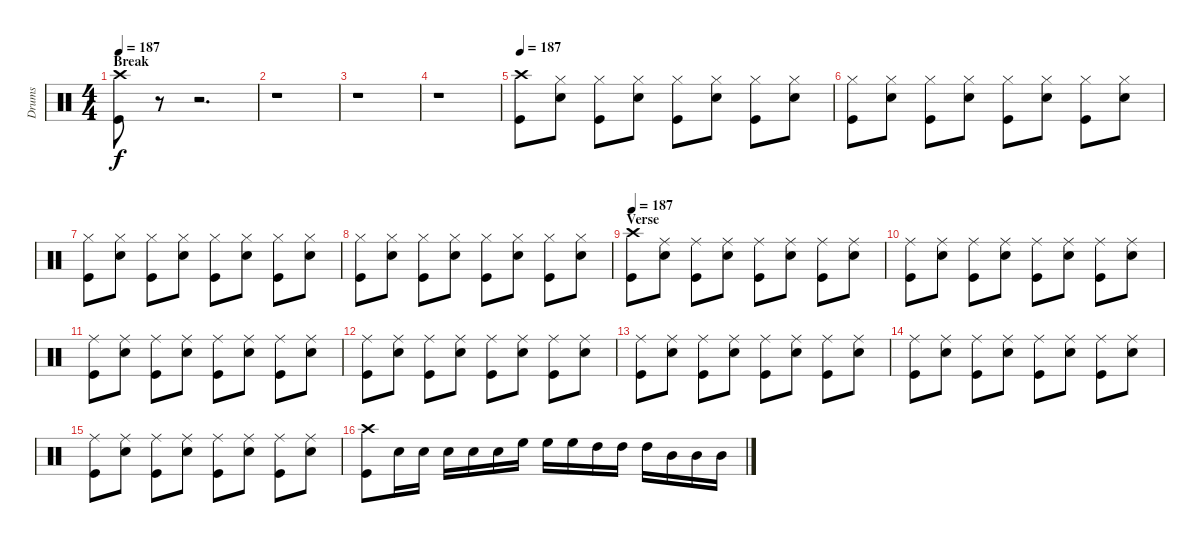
\track ("Drums" "Drums") {instrument percussion}
\staff {score}
\articulation defaults
\ts (4 4)
\section ("" "Break")
\tempo 187
\clef neutral
\ks c
("Crash high (hit)" "Kick (hit)").8{dy f} r.8 r.2{d} |
r.1 |
r.1 |
r.1 |
\tempo 187
("Crash high (hit)" "Kick (hit)").8 ("Hi-Hat (closed)" "Snare (hit) 2").8 ("Hi-Hat (closed)" "Kick (hit)").8 ("Hi-Hat (closed)" "Snare (hit) 2").8 ("Hi-Hat (closed)" "Kick (hit)").8 ("Hi-Hat (closed)" "Snare (hit) 2").8 ("Hi-Hat (closed)" "Kick (hit)").8 ("Hi-Hat (closed)" "Snare (hit) 2").8 |
("Hi-Hat (closed)" "Kick (hit)").8 ("Hi-Hat (closed)" "Snare (hit) 2").8 ("Hi-Hat (closed)" "Kick (hit)").8 ("Hi-Hat (closed)" "Snare (hit) 2").8 ("Hi-Hat (closed)" "Kick (hit)").8 ("Hi-Hat (closed)" "Snare (hit) 2").8 ("Hi-Hat (closed)" "Kick (hit)").8 ("Hi-Hat (closed)" "Snare (hit) 2").8 |
("Hi-Hat (closed)" "Kick (hit)").8 ("Hi-Hat (closed)" "Snare (hit) 2").8 ("Hi-Hat (closed)" "Kick (hit)").8 ("Hi-Hat (closed)" "Snare (hit) 2").8 ("Hi-Hat (closed)" "Kick (hit)").8 ("Hi-Hat (closed)" "Snare (hit) 2").8 ("Hi-Hat (closed)" "Kick (hit)").8 ("Hi-Hat (closed)" "Snare (hit) 2").8 |
("Hi-Hat (closed)" "Kick (hit)").8 ("Hi-Hat (closed)" "Snare (hit) 2").8 ("Hi-Hat (closed)" "Kick (hit)").8 ("Hi-Hat (closed)" "Snare (hit) 2").8 ("Hi-Hat (closed)" "Kick (hit)").8 ("Hi-Hat (closed)" "Snare (hit) 2").8 ("Hi-Hat (closed)" "Kick (hit)").8 ("Hi-Hat (closed)" "Snare (hit) 2").8 |
\section ("" "Verse")
\tempo 187
("Crash high (hit)" "Kick (hit)").8 ("Ride (middle)" "Snare (hit) 2").8 ("Ride (middle)" "Kick (hit)").8 ("Ride (middle)" "Snare (hit) 2").8 ("Ride (middle)" "Kick (hit)").8 ("Ride (middle)" "Snare (hit) 2").8 ("Ride (middle)" "Kick (hit)").8 ("Ride (middle)" "Snare (hit) 2").8 |
("Ride (middle)" "Kick (hit)").8 ("Ride (middle)" "Snare (hit) 2").8 ("Ride (middle)" "Kick (hit)").8 ("Ride (middle)" "Snare (hit) 2").8 ("Ride (middle)" "Kick (hit)").8 ("Ride (middle)" "Snare (hit) 2").8 ("Ride (middle)" "Kick (hit)").8 ("Ride (middle)" "Snare (hit) 2").8 |
("Ride (middle)" "Kick (hit)").8 ("Ride (middle)" "Snare (hit) 2").8 ("Ride (middle)" "Kick (hit)").8 ("Ride (middle)" "Snare (hit) 2").8 ("Ride (middle)" "Kick (hit)").8 ("Ride (middle)" "Snare (hit) 2").8 ("Ride (middle)" "Kick (hit)").8 ("Ride (middle)" "Snare (hit) 2").8 |
("Ride (middle)" "Kick (hit)").8 ("Ride (middle)" "Snare (hit) 2").8 ("Ride (middle)" "Kick (hit)").8 ("Ride (middle)" "Snare (hit) 2").8 ("Ride (middle)" "Kick (hit)").8 ("Ride (middle)" "Snare (hit) 2").8 ("Ride (middle)" "Kick (hit)").8 ("Ride (middle)" "Snare (hit) 2").8 |
("Ride (middle)" "Kick (hit)").8 ("Ride (middle)" "Snare (hit) 2").8 ("Ride (middle)" "Kick (hit)").8 ("Ride (middle)" "Snare (hit) 2").8 ("Ride (middle)" "Kick (hit)").8 ("Ride (middle)" "Snare (hit) 2").8 ("Ride (middle)" "Kick (hit)").8 ("Ride (middle)" "Snare (hit) 2").8 |
("Ride (middle)" "Kick (hit)").8 ("Ride (middle)" "Snare (hit) 2").8 ("Ride (middle)" "Kick (hit)").8 ("Ride (middle)" "Snare (hit) 2").8 ("Ride (middle)" "Kick (hit)").8 ("Ride (middle)" "Snare (hit) 2").8 ("Ride (middle)" "Kick (hit)").8 ("Ride (middle)" "Snare (hit) 2").8 |
("Ride (middle)" "Kick (hit)").8 ("Ride (middle)" "Snare (hit) 2").8 ("Ride (middle)" "Kick (hit)").8 ("Ride (middle)" "Snare (hit) 2").8 ("Ride (middle)" "Kick (hit)").8 ("Ride (middle)" "Snare (hit) 2").8 ("Ride (middle)" "Kick (hit)").8 ("Ride (middle)" "Snare (hit) 2").8 |
("Crash high (hit)" "Kick (hit)").8 "Snare (hit) 2".16 "Snare (hit) 2".16 "Snare (hit) 2".16 "Snare (hit) 2".16 "Snare (hit) 2".16 "High Floor Tom (hit)".16 "High Floor Tom (hit)".16 "High Floor Tom (hit)".16 "High Tom (hit)".16 "High Tom (hit)".16 "High Tom (hit)".16 "Mid Tom (hit)".16 "Mid Tom (hit)".16 "Mid Tom (hit)".16
